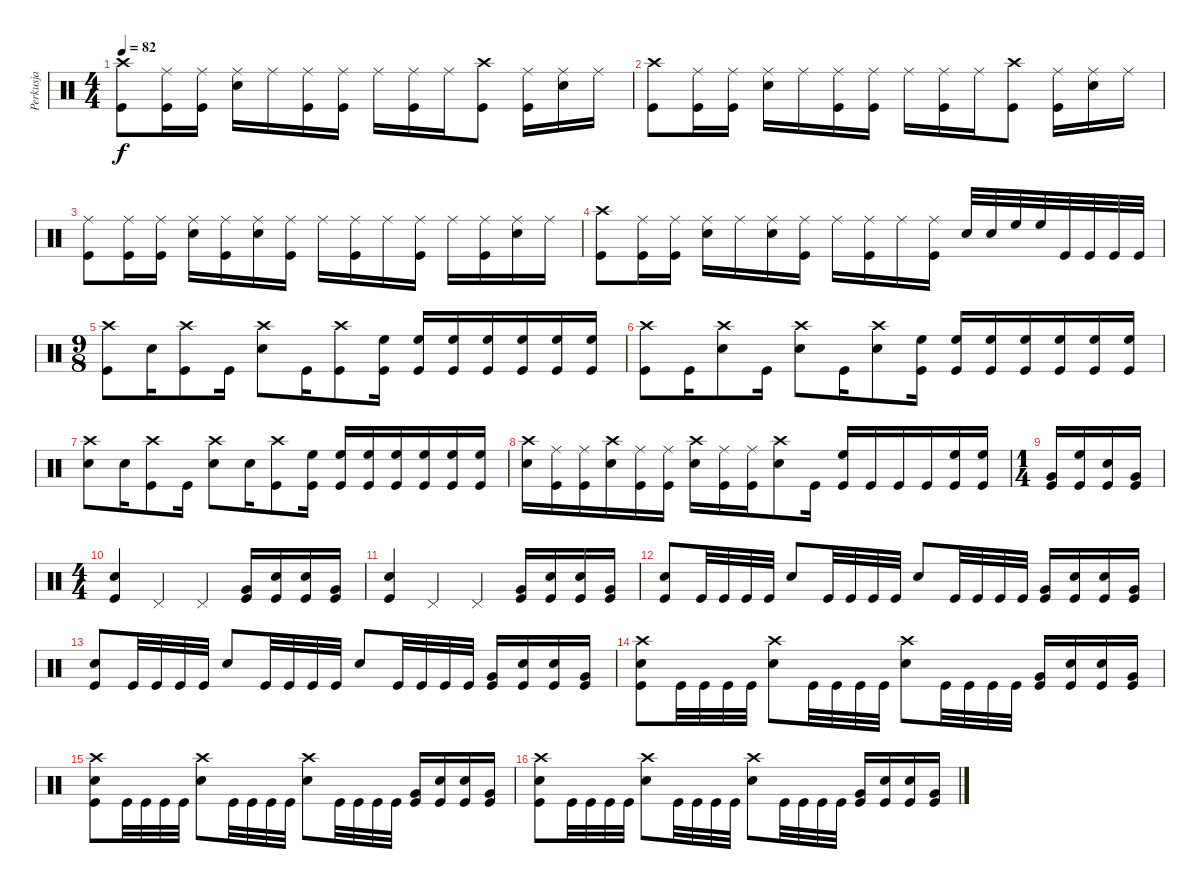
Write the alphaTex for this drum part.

\track ("Perkusja" "Perkusja") {instrument percussion}
\staff {score}
\articulation defaults
\ts (4 4)
\tempo 82
\clef neutral
\ks c
("Crash high (hit)" "Kick (hit)").8{dy f} ("Ride (middle)" "Kick (hit)").16 ("Ride (middle)" "Kick (hit)").16 ("Ride (middle)" "Electric Snare (hit)").16 "Ride (middle)".16 ("Ride (middle)" "Kick (hit)").16 ("Ride (middle)" "Kick (hit)").16 "Ride (middle)".16 ("Ride (middle)" "Kick (hit)").16 "Ride (middle)".16 ("Crash high (hit)" "Kick (hit)").8 ("Ride (middle)" "Kick (hit)").16 ("Ride (middle)" "Electric Snare (hit)").16 "Ride (middle)".16 |
("Crash high (hit)" "Kick (hit)").8 ("Ride (middle)" "Kick (hit)").16 ("Ride (middle)" "Kick (hit)").16 ("Ride (middle)" "Electric Snare (hit)").16 "Ride (middle)".16 ("Ride (middle)" "Kick (hit)").16 ("Ride (middle)" "Kick (hit)").16 "Ride (middle)".16 ("Ride (middle)" "Kick (hit)").16 "Ride (middle)".16 ("Crash high (hit)" "Kick (hit)").8 ("Ride (middle)" "Kick (hit)").16 ("Ride (middle)" "Electric Snare (hit)").16 "Ride (middle)".16 |
("Ride (middle)" "Kick (hit)").8 ("Ride (middle)" "Kick (hit)").16 ("Ride (middle)" "Kick (hit)").16 ("Ride (middle)" "Electric Snare (hit)").16 ("Ride (middle)" "Kick (hit)").16 ("Ride (middle)" "Electric Snare (hit)").16 ("Ride (middle)" "Kick (hit)").16 "Ride (middle)".16 ("Ride (middle)" "Kick (hit)").16 "Ride (middle)".16 ("Ride (middle)" "Kick (hit)").16 "Ride (middle)".16 ("Ride (middle)" "Kick (hit)").16 ("Ride (middle)" "Electric Snare (hit)").16 "Ride (middle)".16 |
("Crash high (hit)" "Kick (hit)").8 ("Ride (middle)" "Kick (hit)").16 ("Ride (middle)" "Kick (hit)").16 ("Ride (middle)" "Electric Snare (hit)").16 "Ride (middle)".16 ("Ride (middle)" "Electric Snare (hit)").16 ("Ride (middle)" "Kick (hit)").16 "Ride (middle)".16 ("Ride (middle)" "Kick (hit)").16 "Ride (middle)".16 ("Ride (middle)" "Kick (hit)").16 "Electric Snare (hit)".32 "Electric Snare (hit)".32 "High Floor Tom (hit)".32 "High Floor Tom (hit)".32 "Kick (hit)".32 "Kick (hit)".32 "Kick (hit)".32 "Kick (hit)".32 |
\ts (9 8)
("Crash high (hit)" "Kick (hit)").8 "Electric Snare (hit)".16 ("Crash high (hit)" "Kick (hit)").8 "Kick (hit)".16 ("Crash high (hit)" "Electric Snare (hit)").8 "Kick (hit)".16 ("Crash high (hit)" "Kick (hit)").8 ("High Floor Tom (hit)" "Kick (hit)").16 ("High Floor Tom (hit)" "Kick (hit)").16 ("High Floor Tom (hit)" "Kick (hit)").16 ("High Floor Tom (hit)" "Kick (hit)").16 ("High Floor Tom (hit)" "Kick (hit)").16 ("High Floor Tom (hit)" "Kick (hit)").16 ("High Floor Tom (hit)" "Kick (hit)").16 |
("Crash high (hit)" "Kick (hit)").8 "Kick (hit)".16 ("Crash high (hit)" "Electric Snare (hit)").8 "Kick (hit)".16 ("Crash high (hit)" "Electric Snare (hit)").8 "Kick (hit)".16 ("Crash high (hit)" "Electric Snare (hit)").8 ("High Floor Tom (hit)" "Kick (hit)").16 ("High Floor Tom (hit)" "Kick (hit)").16 ("High Floor Tom (hit)" "Kick (hit)").16 ("High Floor Tom (hit)" "Kick (hit)").16 ("High Floor Tom (hit)" "Kick (hit)").16 ("High Floor Tom (hit)" "Kick (hit)").16 ("High Floor Tom (hit)" "Kick (hit)").16 |
("Crash high (hit)" "Electric Snare (hit)").8 "Electric Snare (hit)".16 ("Crash high (hit)" "Kick (hit)").8 "Kick (hit)".16 ("Crash high (hit)" "Electric Snare (hit)").8 "Electric Snare (hit)".16 ("Crash high (hit)" "Kick (hit)").8 ("High Floor Tom (hit)" "Kick (hit)").16 ("High Floor Tom (hit)" "Kick (hit)").16 ("High Floor Tom (hit)" "Kick (hit)").16 ("High Floor Tom (hit)" "Kick (hit)").16 ("High Floor Tom (hit)" "Kick (hit)").16 ("High Floor Tom (hit)" "Kick (hit)").16 ("High Floor Tom (hit)" "Kick (hit)").16 |
("Crash high (hit)" "Electric Snare (hit)").16 ("Ride (middle)" "Kick (hit)").16 ("Ride (middle)" "Kick (hit)").16 ("Crash high (hit)" "Electric Snare (hit)").16 ("Ride (middle)" "Kick (hit)").16 ("Ride (middle)" "Kick (hit)").16 ("Crash high (hit)" "Electric Snare (hit)").16 ("Ride (middle)" "Kick (hit)").16 ("Ride (middle)" "Kick (hit)").16 ("Crash high (hit)" "Electric Snare (hit)").8 "Kick (hit)".16 ("High Floor Tom (hit)" "Kick (hit)").16 "Kick (hit)".16 "Kick (hit)".16 "Kick (hit)".16 ("High Floor Tom (hit)" "Kick (hit)").16 ("High Floor Tom (hit)" "Kick (hit)").16 |
\ts (1 4)
("Very Low Tom (hit)" "Kick (hit)").16 ("High Floor Tom (hit)" "Kick (hit)").16 ("Electric Snare (hit)" "Kick (hit)").16 ("Very Low Tom (hit)" "Kick (hit)").16 |
\ts (4 4)
("Electric Snare (hit)" "Kick (hit)").4 "Pedal Hi-Hat (hit)".4 "Pedal Hi-Hat (hit)".4 ("Very Low Tom (hit)" "Kick (hit)").16 ("Electric Snare (hit)" "Kick (hit)").16 ("Electric Snare (hit)" "Kick (hit)").16 ("Very Low Tom (hit)" "Kick (hit)").16 |
("Electric Snare (hit)" "Kick (hit)").4 "Pedal Hi-Hat (hit)".4 "Pedal Hi-Hat (hit)".4 ("Very Low Tom (hit)" "Kick (hit)").16 ("Electric Snare (hit)" "Kick (hit)").16 ("Electric Snare (hit)" "Kick (hit)").16 ("Very Low Tom (hit)" "Kick (hit)").16 |
("Electric Snare (hit)" "Kick (hit)").8 "Kick (hit)".32 "Kick (hit)".32 "Kick (hit)".32 "Kick (hit)".32 "Electric Snare (hit)".8 "Kick (hit)".32 "Kick (hit)".32 "Kick (hit)".32 "Kick (hit)".32 "Electric Snare (hit)".8 "Kick (hit)".32 "Kick (hit)".32 "Kick (hit)".32 "Kick (hit)".32 ("Very Low Tom (hit)" "Kick (hit)").16 ("Electric Snare (hit)" "Kick (hit)").16 ("Electric Snare (hit)" "Kick (hit)").16 ("Very Low Tom (hit)" "Kick (hit)").16 |
("Electric Snare (hit)" "Kick (hit)").8 "Kick (hit)".32 "Kick (hit)".32 "Kick (hit)".32 "Kick (hit)".32 "Electric Snare (hit)".8 "Kick (hit)".32 "Kick (hit)".32 "Kick (hit)".32 "Kick (hit)".32 "Electric Snare (hit)".8 "Kick (hit)".32 "Kick (hit)".32 "Kick (hit)".32 "Kick (hit)".32 ("Very Low Tom (hit)" "Kick (hit)").16 ("Electric Snare (hit)" "Kick (hit)").16 ("Electric Snare (hit)" "Kick (hit)").16 ("Very Low Tom (hit)" "Kick (hit)").16 |
("Crash high (hit)" "Electric Snare (hit)" "Kick (hit)").8 "Kick (hit)".32 "Kick (hit)".32 "Kick (hit)".32 "Kick (hit)".32 ("Crash high (hit)" "Electric Snare (hit)").8 "Kick (hit)".32 "Kick (hit)".32 "Kick (hit)".32 "Kick (hit)".32 ("Crash high (hit)" "Electric Snare (hit)").8 "Kick (hit)".32 "Kick (hit)".32 "Kick (hit)".32 "Kick (hit)".32 ("Very Low Tom (hit)" "Kick (hit)").16 ("Electric Snare (hit)" "Kick (hit)").16 ("Electric Snare (hit)" "Kick (hit)").16 ("Very Low Tom (hit)" "Kick (hit)").16 |
("Crash high (hit)" "Electric Snare (hit)" "Kick (hit)").8 "Kick (hit)".32 "Kick (hit)".32 "Kick (hit)".32 "Kick (hit)".32 ("Crash high (hit)" "Electric Snare (hit)").8 "Kick (hit)".32 "Kick (hit)".32 "Kick (hit)".32 "Kick (hit)".32 ("Crash high (hit)" "Electric Snare (hit)").8 "Kick (hit)".32 "Kick (hit)".32 "Kick (hit)".32 "Kick (hit)".32 ("Very Low Tom (hit)" "Kick (hit)").16 ("Electric Snare (hit)" "Kick (hit)").16 ("Electric Snare (hit)" "Kick (hit)").16 ("Very Low Tom (hit)" "Kick (hit)").16 |
("Crash high (hit)" "Electric Snare (hit)" "Kick (hit)").8 "Kick (hit)".32 "Kick (hit)".32 "Kick (hit)".32 "Kick (hit)".32 ("Crash high (hit)" "Electric Snare (hit)").8 "Kick (hit)".32 "Kick (hit)".32 "Kick (hit)".32 "Kick (hit)".32 ("Crash high (hit)" "Electric Snare (hit)").8 "Kick (hit)".32 "Kick (hit)".32 "Kick (hit)".32 "Kick (hit)".32 ("Very Low Tom (hit)" "Kick (hit)").16 ("Electric Snare (hit)" "Kick (hit)").16 ("Electric Snare (hit)" "Kick (hit)").16 ("Very Low Tom (hit)" "Kick (hit)").16
